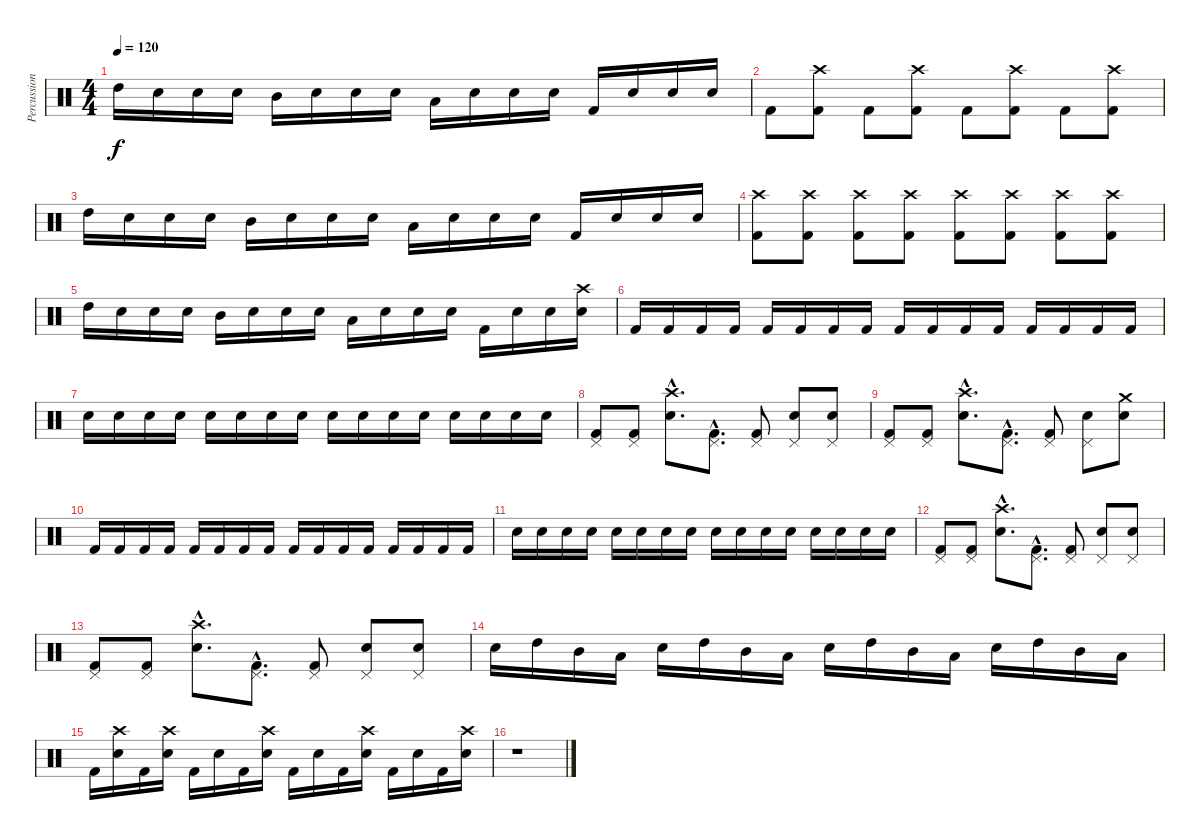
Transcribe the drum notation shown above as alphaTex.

\track ("Percussion" "Percussion") {instrument percussion}
\staff {score}
\articulation defaults
\ts (4 4)
\tempo 120
\clef neutral
\ks c "High Tom (hit)".16{dy f} "Electric Snare (hit)".16 "Electric Snare (hit)".16 "Electric Snare (hit)".16 "Mid Tom (hit)".16 "Electric Snare (hit)".16 "Electric Snare (hit)".16 "Electric Snare (hit)".16 "Low Tom (hit)".16 "Electric Snare (hit)".16 "Electric Snare (hit)".16 "Electric Snare (hit)".16 "Kick (hit) 2".16 "Electric Snare (hit)".16 "Electric Snare (hit)".16 "Electric Snare (hit)".16
|
"Kick (hit) 2".8 ("Crash high (hit)" "Kick (hit) 2").8 "Kick (hit) 2".8 ("Crash high (hit)" "Kick (hit) 2").8 "Kick (hit) 2".8 ("Crash high (hit)" "Kick (hit) 2").8 "Kick (hit) 2".8 ("Crash high (hit)" "Kick (hit) 2").8 |
"High Tom (hit)".16 "Electric Snare (hit)".16 "Electric Snare (hit)".16 "Electric Snare (hit)".16 "Mid Tom (hit)".16 "Electric Snare (hit)".16 "Electric Snare (hit)".16 "Electric Snare (hit)".16 "Low Tom (hit)".16 "Electric Snare (hit)".16 "Electric Snare (hit)".16 "Electric Snare (hit)".16 "Kick (hit) 2".16 "Electric Snare (hit)".16 "Electric Snare (hit)".16 "Electric Snare (hit)".16 |
("Crash high (hit)" "Kick (hit) 2").8 ("Crash high (hit)" "Kick (hit) 2").8 ("Crash high (hit)" "Kick (hit) 2").8 ("Crash high (hit)" "Kick (hit) 2").8 ("Crash high (hit)" "Kick (hit) 2").8 ("Crash high (hit)" "Kick (hit) 2").8 ("Crash high (hit)" "Kick (hit) 2").8 ("Crash high (hit)" "Kick (hit) 2").8 |
"High Tom (hit)".16 "Electric Snare (hit)".16 "Electric Snare (hit)".16 "Electric Snare (hit)".16 "Mid Tom (hit)".16 "Electric Snare (hit)".16 "Electric Snare (hit)".16 "Electric Snare (hit)".16 "Low Tom (hit)".16 "Electric Snare (hit)".16 "Electric Snare (hit)".16 "Electric Snare (hit)".16 "Kick (hit) 2".16 "Electric Snare (hit)".16 "Electric Snare (hit)".16 ("Crash high (hit)" "Electric Snare (hit)").16 |
"Kick (hit) 2".16 "Kick (hit) 2".16 "Kick (hit) 2".16 "Kick (hit) 2".16 "Kick (hit) 2".16 "Kick (hit) 2".16 "Kick (hit) 2".16 "Kick (hit) 2".16 "Kick (hit) 2".16 "Kick (hit) 2".16 "Kick (hit) 2".16 "Kick (hit) 2".16 "Kick (hit) 2".16 "Kick (hit) 2".16 "Kick (hit) 2".16 "Kick (hit) 2".16 |
"Electric Snare (hit)".16 "Electric Snare (hit)".16 "Electric Snare (hit)".16 "Electric Snare (hit)".16 "Electric Snare (hit)".16 "Electric Snare (hit)".16 "Electric Snare (hit)".16 "Electric Snare (hit)".16 "Electric Snare (hit)".16 "Electric Snare (hit)".16 "Electric Snare (hit)".16 "Electric Snare (hit)".16 "Electric Snare (hit)".16 "Electric Snare (hit)".16 "Electric Snare (hit)".16 "Electric Snare (hit)".16 |
("Pedal Hi-Hat (hit)" "Kick (hit) 2").8 ("Pedal Hi-Hat (hit)" "Kick (hit) 2").8 ("Crash high (hit)"{hac} "Electric Snare (hit)"{hac}).8{d} ("Pedal Hi-Hat (hit)"{hac} "Kick (hit) 2"{hac}).8{d} ("Pedal Hi-Hat (hit)" "Kick (hit) 2").8 ("Pedal Hi-Hat (hit)" "Electric Snare (hit)").8 ("Pedal Hi-Hat (hit)" "Electric Snare (hit)").8 |
("Pedal Hi-Hat (hit)" "Kick (hit) 2").8 ("Pedal Hi-Hat (hit)" "Kick (hit) 2").8 ("Crash high (hit)"{hac} "Electric Snare (hit)"{hac}).8{d} ("Pedal Hi-Hat (hit)"{hac} "Kick (hit) 2"{hac}).8{d} ("Pedal Hi-Hat (hit)" "Kick (hit) 2").8 ("Pedal Hi-Hat (hit)" "Electric Snare (hit)").8 ("Crash medium (hit)" "Electric Snare (hit)").8 |
"Kick (hit) 2".16 "Kick (hit) 2".16 "Kick (hit) 2".16 "Kick (hit) 2".16 "Kick (hit) 2".16 "Kick (hit) 2".16 "Kick (hit) 2".16 "Kick (hit) 2".16 "Kick (hit) 2".16 "Kick (hit) 2".16 "Kick (hit) 2".16 "Kick (hit) 2".16 "Kick (hit) 2".16 "Kick (hit) 2".16 "Kick (hit) 2".16 "Kick (hit) 2".16 |
"Electric Snare (hit)".16 "Electric Snare (hit)".16 "Electric Snare (hit)".16 "Electric Snare (hit)".16 "Electric Snare (hit)".16 "Electric Snare (hit)".16 "Electric Snare (hit)".16 "Electric Snare (hit)".16 "Electric Snare (hit)".16 "Electric Snare (hit)".16 "Electric Snare (hit)".16 "Electric Snare (hit)".16 "Electric Snare (hit)".16 "Electric Snare (hit)".16 "Electric Snare (hit)".16 "Electric Snare (hit)".16 |
("Pedal Hi-Hat (hit)" "Kick (hit) 2").8 ("Pedal Hi-Hat (hit)" "Kick (hit) 2").8 ("Crash high (hit)"{hac} "Electric Snare (hit)"{hac}).8{d} ("Pedal Hi-Hat (hit)"{hac} "Kick (hit) 2"{hac}).8{d} ("Pedal Hi-Hat (hit)" "Kick (hit) 2").8 ("Pedal Hi-Hat (hit)" "Electric Snare (hit)").8 ("Pedal Hi-Hat (hit)" "Electric Snare (hit)").8 |
("Pedal Hi-Hat (hit)" "Kick (hit) 2").8 ("Pedal Hi-Hat (hit)" "Kick (hit) 2").8 ("Crash high (hit)"{hac} "Electric Snare (hit)"{hac}).8{d} ("Pedal Hi-Hat (hit)"{hac} "Kick (hit) 2"{hac}).8{d} ("Pedal Hi-Hat (hit)" "Kick (hit) 2").8 ("Pedal Hi-Hat (hit)" "Electric Snare (hit)").8 ("Pedal Hi-Hat (hit)" "Electric Snare (hit)").8 |
"Electric Snare (hit)".16 "High Tom (hit)".16 "Mid Tom (hit)".16 "Low Tom (hit)".16 "Electric Snare (hit)".16 "High Tom (hit)".16 "Mid Tom (hit)".16 "Low Tom (hit)".16 "Electric Snare (hit)".16 "High Tom (hit)".16 "Mid Tom (hit)".16 "Low Tom (hit)".16 "Electric Snare (hit)".16 "High Tom (hit)".16 "Mid Tom (hit)".16 "Low Tom (hit)".16 |
"Kick (hit) 2".16 ("Crash high (hit)" "Electric Snare (hit)").16 "Kick (hit) 2".16 ("Crash high (hit)" "Electric Snare (hit)").16 "Kick (hit) 2".16 "Electric Snare (hit)".16 "Kick (hit) 2".16 ("Crash high (hit)" "Electric Snare (hit)").16 "Kick (hit) 2".16 "Electric Snare (hit)".16 "Kick (hit) 2".16 ("Crash high (hit)" "Electric Snare (hit)").16 "Kick (hit) 2".16 "Electric Snare (hit)".16 "Kick (hit) 2".16 ("Crash high (hit)" "Electric Snare (hit)").16 |
r.1
